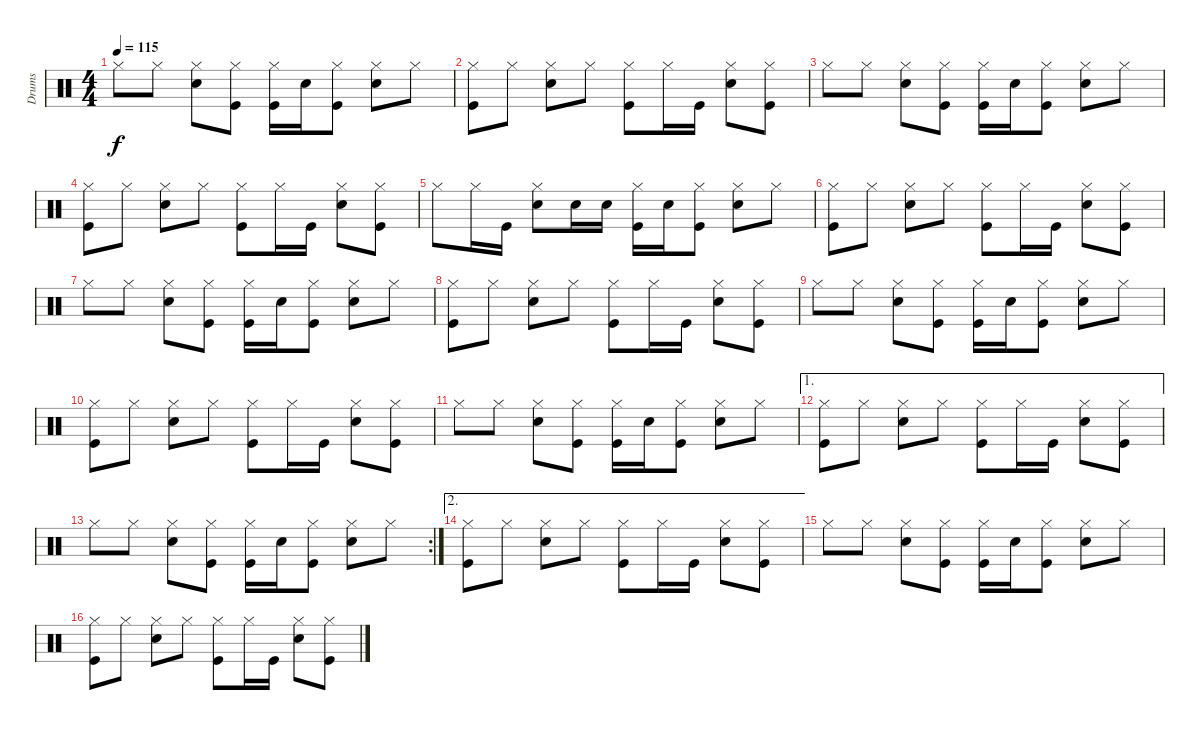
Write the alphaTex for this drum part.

\track ("Drums" "Drums") {instrument percussion}
\staff {score}
\articulation defaults
\ts (4 4)
\tempo 115
\clef neutral
\ks c "Hi-Hat (closed)".8{dy f} "Hi-Hat (closed)".8
("Hi-Hat (closed)" "Snare (hit) 2").8 ("Hi-Hat (closed)" "Kick (hit)").8 ("Hi-Hat (closed)" "Kick (hit)").16 "Snare (hit) 2".16 ("Hi-Hat (closed)" "Kick (hit)").8 ("Hi-Hat (closed)" "Snare (hit) 2").8 "Hi-Hat (closed)".8 |
("Hi-Hat (closed)" "Kick (hit)").8 "Hi-Hat (closed)".8 ("Hi-Hat (closed)" "Snare (hit) 2").8 "Hi-Hat (closed)".8 ("Hi-Hat (closed)" "Kick (hit)").8 "Hi-Hat (closed)".16 "Kick (hit)".16 ("Hi-Hat (closed)" "Snare (hit) 2").8 ("Hi-Hat (closed)" "Kick (hit)").8 |
"Hi-Hat (closed)".8 "Hi-Hat (closed)".8 ("Hi-Hat (closed)" "Snare (hit) 2").8 ("Hi-Hat (closed)" "Kick (hit)").8 ("Hi-Hat (closed)" "Kick (hit)").16 "Snare (hit) 2".16 ("Hi-Hat (closed)" "Kick (hit)").8 ("Hi-Hat (closed)" "Snare (hit) 2").8 "Hi-Hat (closed)".8 |
("Hi-Hat (closed)" "Kick (hit)").8 "Hi-Hat (closed)".8 ("Hi-Hat (closed)" "Snare (hit) 2").8 "Hi-Hat (closed)".8 ("Hi-Hat (closed)" "Kick (hit)").8 "Hi-Hat (closed)".16 "Kick (hit)".16 ("Hi-Hat (closed)" "Snare (hit) 2").8 ("Hi-Hat (closed)" "Kick (hit)").8 |
"Hi-Hat (closed)".8 "Hi-Hat (closed)".16 "Kick (hit)".16 ("Hi-Hat (closed)" "Snare (hit) 2").8 "Snare (hit) 2".16 "Snare (hit) 2".16 ("Hi-Hat (closed)" "Kick (hit)").16 "Snare (hit) 2".16 ("Hi-Hat (closed)" "Kick (hit)").8 ("Hi-Hat (closed)" "Snare (hit) 2").8 "Hi-Hat (closed)".8 |
("Hi-Hat (closed)" "Kick (hit)").8 "Hi-Hat (closed)".8 ("Hi-Hat (closed)" "Snare (hit) 2").8 "Hi-Hat (closed)".8 ("Hi-Hat (closed)" "Kick (hit)").8 "Hi-Hat (closed)".16 "Kick (hit)".16 ("Hi-Hat (closed)" "Snare (hit) 2").8 ("Hi-Hat (closed)" "Kick (hit)").8 |
"Hi-Hat (closed)".8 "Hi-Hat (closed)".8 ("Hi-Hat (closed)" "Snare (hit) 2").8 ("Hi-Hat (closed)" "Kick (hit)").8 ("Hi-Hat (closed)" "Kick (hit)").16 "Snare (hit) 2".16 ("Hi-Hat (closed)" "Kick (hit)").8 ("Hi-Hat (closed)" "Snare (hit) 2").8 "Hi-Hat (closed)".8 |
("Hi-Hat (closed)" "Kick (hit)").8 "Hi-Hat (closed)".8 ("Hi-Hat (closed)" "Snare (hit) 2").8 "Hi-Hat (closed)".8 ("Hi-Hat (closed)" "Kick (hit)").8 "Hi-Hat (closed)".16 "Kick (hit)".16 ("Hi-Hat (closed)" "Snare (hit) 2").8 ("Hi-Hat (closed)" "Kick (hit)").8 |
"Hi-Hat (closed)".8 "Hi-Hat (closed)".8 ("Hi-Hat (closed)" "Snare (hit) 2").8 ("Hi-Hat (closed)" "Kick (hit)").8 ("Hi-Hat (closed)" "Kick (hit)").16 "Snare (hit) 2".16 ("Hi-Hat (closed)" "Kick (hit)").8 ("Hi-Hat (closed)" "Snare (hit) 2").8 "Hi-Hat (closed)".8 |
("Hi-Hat (closed)" "Kick (hit)").8 "Hi-Hat (closed)".8 ("Hi-Hat (closed)" "Snare (hit) 2").8 "Hi-Hat (closed)".8 ("Hi-Hat (closed)" "Kick (hit)").8 "Hi-Hat (closed)".16 "Kick (hit)".16 ("Hi-Hat (closed)" "Snare (hit) 2").8 ("Hi-Hat (closed)" "Kick (hit)").8 |
"Hi-Hat (closed)".8 "Hi-Hat (closed)".8 ("Hi-Hat (closed)" "Snare (hit) 2").8 ("Hi-Hat (closed)" "Kick (hit)").8 ("Hi-Hat (closed)" "Kick (hit)").16 "Snare (hit) 2".16 ("Hi-Hat (closed)" "Kick (hit)").8 ("Hi-Hat (closed)" "Snare (hit) 2").8 "Hi-Hat (closed)".8 |
\ae 1
("Hi-Hat (closed)" "Kick (hit)").8 "Hi-Hat (closed)".8 ("Hi-Hat (closed)" "Snare (hit) 2").8 "Hi-Hat (closed)".8 ("Hi-Hat (closed)" "Kick (hit)").8 "Hi-Hat (closed)".16 "Kick (hit)".16 ("Hi-Hat (closed)" "Snare (hit) 2").8 ("Hi-Hat (closed)" "Kick (hit)").8 |
\rc 2 "Hi-Hat (closed)".8 "Hi-Hat (closed)".8
("Hi-Hat (closed)" "Snare (hit) 2").8 ("Hi-Hat (closed)" "Kick (hit)").8 ("Hi-Hat (closed)" "Kick (hit)").16 "Snare (hit) 2".16 ("Hi-Hat (closed)" "Kick (hit)").8 ("Hi-Hat (closed)" "Snare (hit) 2").8 "Hi-Hat (closed)".8 |
\ae 2
("Hi-Hat (closed)" "Kick (hit)").8 "Hi-Hat (closed)".8 ("Hi-Hat (closed)" "Snare (hit) 2").8 "Hi-Hat (closed)".8 ("Hi-Hat (closed)" "Kick (hit)").8 "Hi-Hat (closed)".16 "Kick (hit)".16 ("Hi-Hat (closed)" "Snare (hit) 2").8 ("Hi-Hat (closed)" "Kick (hit)").8 |
"Hi-Hat (closed)".8 "Hi-Hat (closed)".8 ("Hi-Hat (closed)" "Snare (hit) 2").8 ("Hi-Hat (closed)" "Kick (hit)").8 ("Hi-Hat (closed)" "Kick (hit)").16 "Snare (hit) 2".16 ("Hi-Hat (closed)" "Kick (hit)").8 ("Hi-Hat (closed)" "Snare (hit) 2").8 "Hi-Hat (closed)".8 |
("Hi-Hat (closed)" "Kick (hit)").8 "Hi-Hat (closed)".8 ("Hi-Hat (closed)" "Snare (hit) 2").8 "Hi-Hat (closed)".8 ("Hi-Hat (closed)" "Kick (hit)").8 "Hi-Hat (closed)".16 "Kick (hit)".16 ("Hi-Hat (closed)" "Snare (hit) 2").8 ("Hi-Hat (closed)" "Kick (hit)").8
